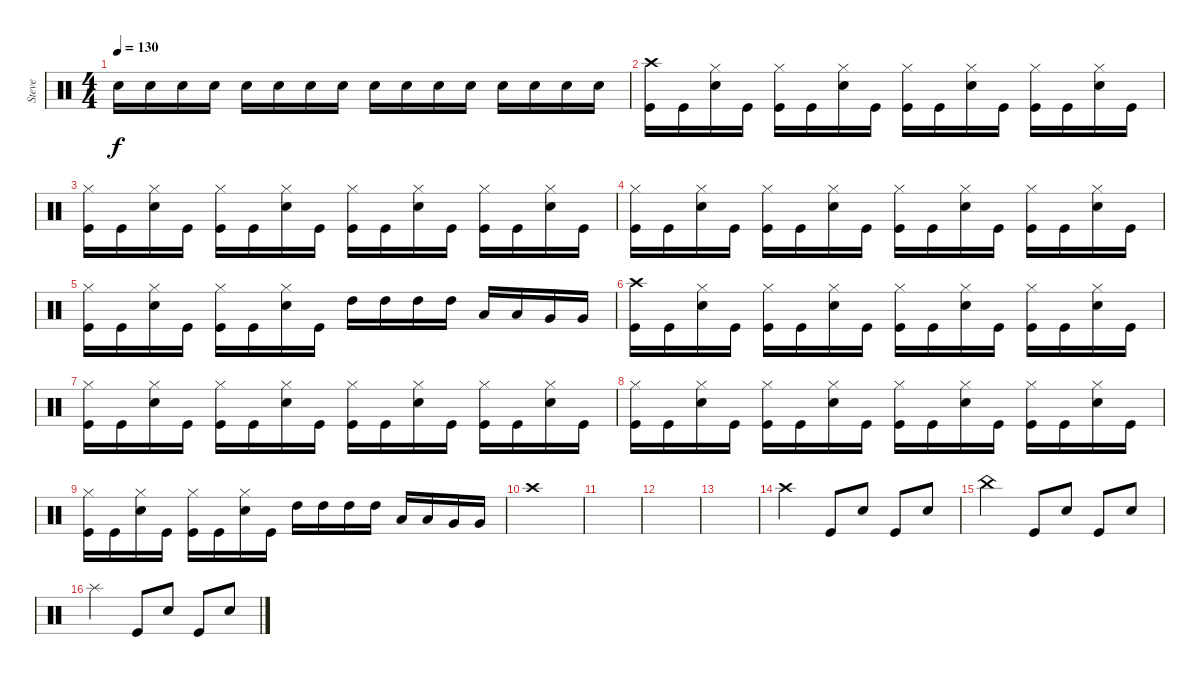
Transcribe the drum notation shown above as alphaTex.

\track ("Steve" "Steve") {instrument percussion}
\staff {score}
\articulation defaults
\ts (4 4)
\tempo 130
\clef neutral
\ks c "Snare (hit) 2".16{dy f} "Snare (hit) 2".16 "Snare (hit) 2".16 "Snare (hit) 2".16 "Snare (hit) 2".16 "Snare (hit) 2".16 "Snare (hit) 2".16 "Snare (hit) 2".16 "Snare (hit) 2".16 "Snare (hit) 2".16 "Snare (hit) 2".16 "Snare (hit) 2".16 "Snare (hit) 2".16 "Snare (hit) 2".16 "Snare (hit) 2".16 "Snare (hit) 2".16
|
("Crash high (hit)" "Kick (hit)").16 "Kick (hit)".16 ("Hi-Hat (closed)" "Snare (hit) 2").16 "Kick (hit)".16 ("Hi-Hat (closed)" "Kick (hit)").16 "Kick (hit)".16 ("Hi-Hat (closed)" "Snare (hit) 2").16 "Kick (hit)".16 ("Hi-Hat (closed)" "Kick (hit)").16 "Kick (hit)".16 ("Hi-Hat (closed)" "Snare (hit) 2").16 "Kick (hit)".16 ("Hi-Hat (closed)" "Kick (hit)").16 "Kick (hit)".16 ("Hi-Hat (closed)" "Snare (hit) 2").16 "Kick (hit)".16 |
("Hi-Hat (closed)" "Kick (hit)").16 "Kick (hit)".16 ("Hi-Hat (closed)" "Snare (hit) 2").16 "Kick (hit)".16 ("Hi-Hat (closed)" "Kick (hit)").16 "Kick (hit)".16 ("Hi-Hat (closed)" "Snare (hit) 2").16 "Kick (hit)".16 ("Hi-Hat (closed)" "Kick (hit)").16 "Kick (hit)".16 ("Hi-Hat (closed)" "Snare (hit) 2").16 "Kick (hit)".16 ("Hi-Hat (closed)" "Kick (hit)").16 "Kick (hit)".16 ("Hi-Hat (closed)" "Snare (hit) 2").16 "Kick (hit)".16 |
("Hi-Hat (closed)" "Kick (hit)").16 "Kick (hit)".16 ("Hi-Hat (closed)" "Snare (hit) 2").16 "Kick (hit)".16 ("Hi-Hat (closed)" "Kick (hit)").16 "Kick (hit)".16 ("Hi-Hat (closed)" "Snare (hit) 2").16 "Kick (hit)".16 ("Hi-Hat (closed)" "Kick (hit)").16 "Kick (hit)".16 ("Hi-Hat (closed)" "Snare (hit) 2").16 "Kick (hit)".16 ("Hi-Hat (closed)" "Kick (hit)").16 "Kick (hit)".16 ("Hi-Hat (closed)" "Snare (hit) 2").16 "Kick (hit)".16 |
("Hi-Hat (closed)" "Kick (hit)").16 "Kick (hit)".16 ("Hi-Hat (closed)" "Snare (hit) 2").16 "Kick (hit)".16 ("Hi-Hat (closed)" "Kick (hit)").16 "Kick (hit)".16 ("Hi-Hat (closed)" "Snare (hit) 2").16 "Kick (hit)".16 "High Tom (hit)".16 "High Tom (hit)".16 "High Tom (hit)".16 "High Tom (hit)".16 "Low Tom (hit)".16 "Low Tom (hit)".16 "Very Low Tom (hit)".16 "Very Low Tom (hit)".16 |
("Crash high (hit)" "Kick (hit)").16 "Kick (hit)".16 ("Hi-Hat (closed)" "Snare (hit) 2").16 "Kick (hit)".16 ("Hi-Hat (closed)" "Kick (hit)").16 "Kick (hit)".16 ("Hi-Hat (closed)" "Snare (hit) 2").16 "Kick (hit)".16 ("Hi-Hat (closed)" "Kick (hit)").16 "Kick (hit)".16 ("Hi-Hat (closed)" "Snare (hit) 2").16 "Kick (hit)".16 ("Hi-Hat (closed)" "Kick (hit)").16 "Kick (hit)".16 ("Hi-Hat (closed)" "Snare (hit) 2").16 "Kick (hit)".16 |
("Hi-Hat (closed)" "Kick (hit)").16 "Kick (hit)".16 ("Hi-Hat (closed)" "Snare (hit) 2").16 "Kick (hit)".16 ("Hi-Hat (closed)" "Kick (hit)").16 "Kick (hit)".16 ("Hi-Hat (closed)" "Snare (hit) 2").16 "Kick (hit)".16 ("Hi-Hat (closed)" "Kick (hit)").16 "Kick (hit)".16 ("Hi-Hat (closed)" "Snare (hit) 2").16 "Kick (hit)".16 ("Hi-Hat (closed)" "Kick (hit)").16 "Kick (hit)".16 ("Hi-Hat (closed)" "Snare (hit) 2").16 "Kick (hit)".16 |
("Hi-Hat (closed)" "Kick (hit)").16 "Kick (hit)".16 ("Hi-Hat (closed)" "Snare (hit) 2").16 "Kick (hit)".16 ("Hi-Hat (closed)" "Kick (hit)").16 "Kick (hit)".16 ("Hi-Hat (closed)" "Snare (hit) 2").16 "Kick (hit)".16 ("Hi-Hat (closed)" "Kick (hit)").16 "Kick (hit)".16 ("Hi-Hat (closed)" "Snare (hit) 2").16 "Kick (hit)".16 ("Hi-Hat (closed)" "Kick (hit)").16 "Kick (hit)".16 ("Hi-Hat (closed)" "Snare (hit) 2").16 "Kick (hit)".16 |
("Hi-Hat (closed)" "Kick (hit)").16 "Kick (hit)".16 ("Hi-Hat (closed)" "Snare (hit) 2").16 "Kick (hit)".16 ("Hi-Hat (closed)" "Kick (hit)").16 "Kick (hit)".16 ("Hi-Hat (closed)" "Snare (hit) 2").16 "Kick (hit)".16 "High Tom (hit)".16 "High Tom (hit)".16 "High Tom (hit)".16 "High Tom (hit)".16 "Low Tom (hit)".16 "Low Tom (hit)".16 "Very Low Tom (hit)".16 "Very Low Tom (hit)".16 |
"Crash high (hit)".1 |
|
|
|
"Crash high (hit)".2 "Kick (hit)".8 "Snare (hit) 2".8 "Kick (hit)".8 "Snare (hit) 2".8 |
"China (hit)".2 "Kick (hit)".8 "Snare (hit) 2".8 "Kick (hit)".8 "Snare (hit) 2".8 |
"Splash (hit)".2 "Kick (hit)".8 "Snare (hit) 2".8 "Kick (hit)".8 "Snare (hit) 2".8
